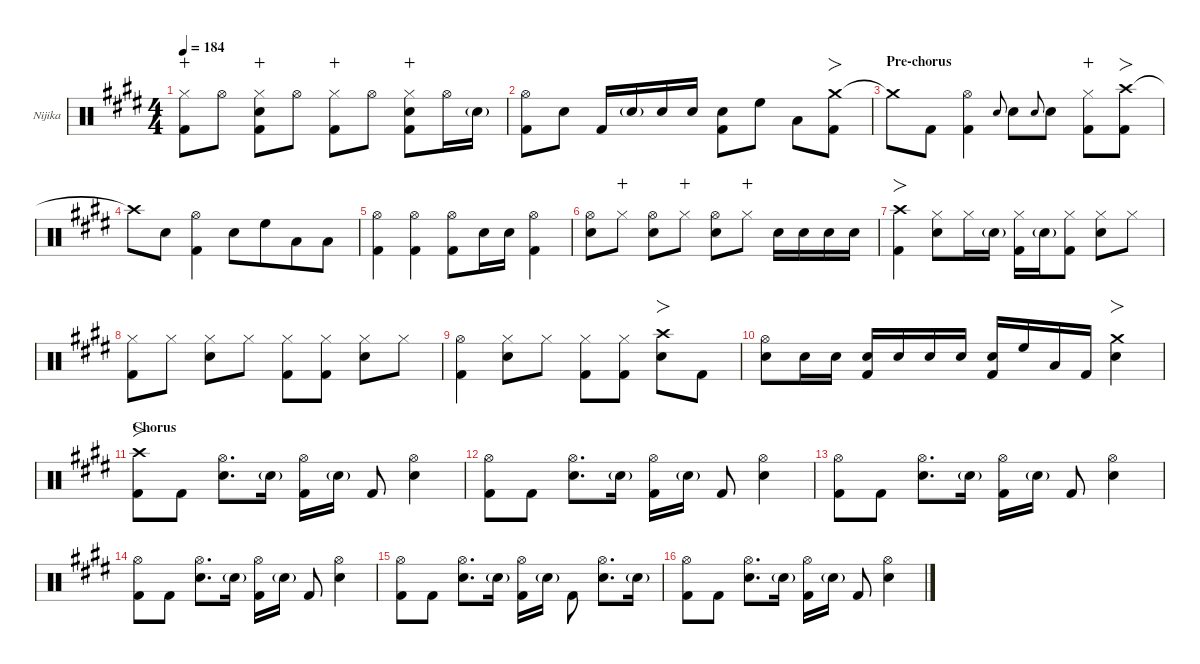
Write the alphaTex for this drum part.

\defaultSystemsLayout 4
\hideDynamics
\bracketExtendMode nobrackets
\firstSystemTrackNameOrientation horizontal
\track ("Nijika" "Nijika") {defaultSystemsLayout 4 instrument percussion}
\staff {score}
\articulation defaults
\ts (4 4)
\tempo 184
\clef neutral
\ks e
("Hi-Hat (closed)"{acc forcenatural} "Kick (hit) 2"{acc forcenatural}).8{dy mp wahc beam Down} "Hi-Hat (open)"{acc forcenatural}.8{dy f beam Down} ("Hi-Hat (closed)"{acc forcenatural} "Snare (hit) 2"{acc forcenatural} "Kick (hit) 2"{acc forcenatural}).8{wahc beam Down} "Hi-Hat (open)"{acc forcenatural}.8{beam Down} ("Hi-Hat (closed)"{acc forcenatural} "Kick (hit) 2"{acc forcenatural}).8{dy mp wahc beam Down} "Hi-Hat (open)"{acc forcenatural}.8{dy f beam Down beam split} ("Hi-Hat (closed)"{acc forcenatural} "Snare (hit) 2"{acc forcenatural} "Kick (hit) 2"{acc forcenatural}).8{wahc beam Down} "Hi-Hat (open)"{acc forcenatural}.16{beam Down} "Snare (hit) 2"{g acc forcenatural}.16{dy mf beam Down} |
("Hi-Hat (open)"{acc forcenatural} "Kick (hit) 2"{acc forcenatural}).8{dy f beam Down} "Snare (hit) 2"{acc forcenatural}.8{beam Down beam split} "Kick (hit) 2"{acc forcenatural}.16{beam Up beam merge} "Snare (hit) 2"{g acc forcenatural}.16{dy mf beam Up beam merge} "Snare (hit) 2"{acc forcenatural}.16{dy f beam Up beam merge} "Snare (hit) 2"{acc forcenatural}.16{dy mf beam Up} ("Snare (hit) 2"{acc forcenatural} "Kick (hit) 2"{acc forcenatural}).8{dy f beam Down} "High Floor Tom (hit)"{acc forcenatural}.8{beam Down} "Low Tom (hit)"{acc forcenatural}.8{beam Down} ("Crash medium (hit)"{acc forcenatural} "Kick (hit) 2"{acc forcenatural}).8{fo beam Down} |
\section ("" "Pre-chorus")
"Crash medium (hit)"{t acc forcenatural}.8{beam Down} "Kick (hit) 2"{acc forcenatural}.8{beam Down} ("Hi-Hat (open)"{acc forcenatural} "Kick (hit) 2"{acc forcenatural}).4{beam Down} "Snare (hit) 2"{acc forcenatural}.8{gr onbeat beam Up} "Snare (hit) 2"{acc forcenatural}.8{beam Down} "Snare (hit) 2"{acc forcenatural}.8{gr onbeat beam Up} "Snare (hit) 2"{acc forcenatural}.8{beam Down} ("Hi-Hat (closed)"{acc forcenatural} "Kick (hit) 2"{acc forcenatural}).8{dy mp wahc beam Down} ("Crash high (hit)"{acc forcenatural} "Kick (hit) 2"{acc forcenatural}).8{fo dy f beam Down} |
"Crash high (hit)"{t acc forcenatural}.8{beam Down} "Snare (hit) 2"{acc forcenatural}.8{beam Down} ("Hi-Hat (open)"{acc forcenatural} "Kick (hit) 2"{acc forcenatural}).4{beam Down} "Snare (hit) 2"{acc forcenatural}.8{beam Down beam merge} "High Floor Tom (hit)"{acc forcenatural}.8{beam Down beam merge} "Low Tom (hit)"{acc forcenatural}.8{beam Down beam merge} "Low Tom (hit)"{acc forcenatural}.8{beam Down} |
("Hi-Hat (open)"{acc forcenatural} "Kick (hit) 2"{acc forcenatural}).4{beam Down} ("Hi-Hat (open)"{acc forcenatural} "Kick (hit) 2"{acc forcenatural}).4{beam Down} ("Hi-Hat (open)"{acc forcenatural} "Kick (hit) 2"{acc forcenatural}).8{beam Down} "Snare (hit) 2"{acc forcenatural}.16{beam Down} "Snare (hit) 2"{acc forcenatural}.16{dy mf beam Down} ("Hi-Hat (open)"{acc forcenatural} "Kick (hit) 2"{acc forcenatural}).4{dy f beam Down} |
("Hi-Hat (open)"{acc forcenatural} "Snare (hit) 2"{acc forcenatural}).8{beam Down} "Hi-Hat (closed)"{acc forcenatural}.8{dy mp wahc beam Down} ("Hi-Hat (open)"{acc forcenatural} "Snare (hit) 2"{acc forcenatural}).8{dy f beam Down} "Hi-Hat (closed)"{acc forcenatural}.8{dy mp wahc beam Down} ("Hi-Hat (open)"{acc forcenatural} "Snare (hit) 2"{acc forcenatural}).8{dy f beam Down} "Hi-Hat (closed)"{acc forcenatural}.8{dy mp wahc beam Down beam split} "Snare (hit) 2"{acc forcenatural}.16{dy f beam Down} "Snare (hit) 2"{acc forcenatural}.16{dy mf beam Down} "Snare (hit) 2"{acc forcenatural}.16{dy f beam Down} "Snare (hit) 2"{acc forcenatural}.16{dy mf beam Down} |
("Crash high (hit)"{acc forcenatural} "Kick (hit) 2"{acc forcenatural}).4{fo dy f beam Down} ("Hi-Hat (closed)"{acc forcenatural} "Snare (hit) 2"{acc forcenatural}).8{beam Down} "Hi-Hat (closed)"{acc forcenatural}.16{dy mf beam Down} "Snare (hit) 2"{g acc forcenatural}.16{beam Down} ("Hi-Hat (closed)"{acc forcenatural} "Kick (hit) 2"{acc forcenatural}).16{dy f beam Down} "Snare (hit) 2"{g acc forcenatural}.16{dy mf beam Down} ("Hi-Hat (closed)"{acc forcenatural} "Kick (hit) 2"{acc forcenatural}).8{beam Down beam split} ("Hi-Hat (closed)"{acc forcenatural} "Snare (hit) 2"{acc forcenatural}).8{dy f beam Down} "Hi-Hat (closed)"{acc forcenatural}.8{dy mf beam Down} |
("Hi-Hat (closed)"{acc forcenatural} "Kick (hit) 2"{acc forcenatural}).8{dy f beam Down} "Hi-Hat (closed)"{acc forcenatural}.8{dy mf beam Down} ("Hi-Hat (closed)"{acc forcenatural} "Snare (hit) 2"{acc forcenatural}).8{dy f beam Down} "Hi-Hat (closed)"{acc forcenatural}.8{dy mf beam Down} ("Hi-Hat (closed)"{acc forcenatural} "Kick (hit) 2"{acc forcenatural}).8{dy f beam Down} ("Hi-Hat (closed)"{acc forcenatural} "Kick (hit) 2"{acc forcenatural}).8{dy mf beam Down} ("Hi-Hat (closed)"{acc forcenatural} "Snare (hit) 2"{acc forcenatural}).8{dy f beam Down} "Hi-Hat (closed)"{acc forcenatural}.8{dy mf beam Down} |
("Hi-Hat (open)"{acc forcenatural} "Kick (hit) 2"{acc forcenatural}).4{dy f beam Down} ("Hi-Hat (closed)"{acc forcenatural} "Snare (hit) 2"{acc forcenatural}).8{beam Down} "Hi-Hat (closed)"{acc forcenatural}.8{dy mf beam Down} ("Hi-Hat (closed)"{acc forcenatural} "Kick (hit) 2"{acc forcenatural}).8{dy f beam Down} ("Hi-Hat (closed)"{acc forcenatural} "Kick (hit) 2"{acc forcenatural}).8{dy mf beam Down beam split} ("Crash high (hit)"{acc forcenatural} "Snare (hit) 2"{acc forcenatural}).8{fo dy f beam Down} "Kick (hit) 2"{acc forcenatural}.8{beam Down} |
("Hi-Hat (open)"{acc forcenatural} "Snare (hit) 2"{acc forcenatural}).8{beam Down} "Snare (hit) 2"{acc forcenatural}.16{beam Down} "Snare (hit) 2"{acc forcenatural}.16{dy mf beam Down beam split} ("Snare (hit) 2"{acc forcenatural} "Kick (hit) 2"{acc forcenatural}).16{dy f beam Up} "Snare (hit) 2"{acc forcenatural}.16{dy mf beam Up} "Snare (hit) 2"{acc forcenatural}.16{dy f beam Up} "Snare (hit) 2"{acc forcenatural}.16{dy mf beam Up} ("Snare (hit) 2"{acc forcenatural} "Kick (hit) 2"{acc forcenatural}).16{dy f beam Up beam merge} "High Floor Tom (hit)"{acc forcenatural}.16{beam Up beam merge} "Low Tom (hit)"{acc forcenatural}.16{beam Up beam merge} "Kick (hit) 2"{acc forcenatural}.16{beam Up} ("Snare (hit) 2"{acc forcenatural} "Crash medium (hit)"{acc forcenatural}).4{fo beam Down} |
\section ("" "Chorus")
("Crash high (hit)"{acc forcenatural} "Kick (hit) 2"{acc forcenatural}).8{fo beam Down} "Kick (hit) 2"{acc forcenatural}.8{beam Down} ("Hi-Hat (open)"{acc forcenatural} "Snare (hit) 2"{acc forcenatural}).8{d beam Down} "Snare (hit) 2"{g acc forcenatural}.16{dy mf beam Down} ("Hi-Hat (open)"{acc forcenatural} "Kick (hit) 2"{acc forcenatural}).16{dy f beam Down} "Snare (hit) 2"{g acc forcenatural}.16{dy mf beam Down beam split} "Kick (hit) 2"{acc forcenatural}.8{dy f beam Up} ("Hi-Hat (open)"{acc forcenatural} "Snare (hit) 2"{acc forcenatural}).4{beam Down} |
("Hi-Hat (open)"{acc forcenatural} "Kick (hit) 2"{acc forcenatural}).8{beam Down} "Kick (hit) 2"{acc forcenatural}.8{beam Down} ("Hi-Hat (open)"{acc forcenatural} "Snare (hit) 2"{acc forcenatural}).8{d beam Down} "Snare (hit) 2"{g acc forcenatural}.16{dy mf beam Down} ("Hi-Hat (open)"{acc forcenatural} "Kick (hit) 2"{acc forcenatural}).16{dy f beam Down} "Snare (hit) 2"{g acc forcenatural}.16{dy mf beam Down beam split} "Kick (hit) 2"{acc forcenatural}.8{dy f beam Up} ("Hi-Hat (open)"{acc forcenatural} "Snare (hit) 2"{acc forcenatural}).4{beam Down} |
("Hi-Hat (open)"{acc forcenatural} "Kick (hit) 2"{acc forcenatural}).8{beam Down} "Kick (hit) 2"{acc forcenatural}.8{beam Down} ("Hi-Hat (open)"{acc forcenatural} "Snare (hit) 2"{acc forcenatural}).8{d beam Down} "Snare (hit) 2"{g acc forcenatural}.16{dy mf beam Down} ("Hi-Hat (open)"{acc forcenatural} "Kick (hit) 2"{acc forcenatural}).16{dy f beam Down} "Snare (hit) 2"{g acc forcenatural}.16{dy mf beam Down beam split} "Kick (hit) 2"{acc forcenatural}.8{dy f beam Up} ("Hi-Hat (open)"{acc forcenatural} "Snare (hit) 2"{acc forcenatural}).4{beam Down} |
("Hi-Hat (open)"{acc forcenatural} "Kick (hit) 2"{acc forcenatural}).8{beam Down} "Kick (hit) 2"{acc forcenatural}.8{beam Down} ("Hi-Hat (open)"{acc forcenatural} "Snare (hit) 2"{acc forcenatural}).8{d beam Down} "Snare (hit) 2"{g acc forcenatural}.16{dy mf beam Down} ("Hi-Hat (open)"{acc forcenatural} "Kick (hit) 2"{acc forcenatural}).16{dy f beam Down} "Snare (hit) 2"{g acc forcenatural}.16{dy mf beam Down beam split} "Kick (hit) 2"{acc forcenatural}.8{dy f beam Up} ("Hi-Hat (open)"{acc forcenatural} "Snare (hit) 2"{acc forcenatural}).4{beam Down} |
("Hi-Hat (open)"{acc forcenatural} "Kick (hit) 2"{acc forcenatural}).8{beam Down} "Kick (hit) 2"{acc forcenatural}.8{beam Down} ("Hi-Hat (open)"{acc forcenatural} "Snare (hit) 2"{acc forcenatural}).8{d beam Down} "Snare (hit) 2"{g acc forcenatural}.16{dy mf beam Down} ("Hi-Hat (open)"{acc forcenatural} "Kick (hit) 2"{acc forcenatural}).16{dy f beam Down} "Snare (hit) 2"{g acc forcenatural}.16{dy mf beam Down beam split} "Kick (hit) 2"{acc forcenatural}.8{dy f beam Down} ("Hi-Hat (open)"{acc forcenatural} "Snare (hit) 2"{acc forcenatural}).8{d beam Down} "Snare (hit) 2"{g acc forcenatural}.16{dy mf beam Down} |
("Hi-Hat (open)"{acc forcenatural} "Kick (hit) 2"{acc forcenatural}).8{dy f beam Down} "Kick (hit) 2"{acc forcenatural}.8{beam Down} ("Hi-Hat (open)"{acc forcenatural} "Snare (hit) 2"{acc forcenatural}).8{d beam Down} "Snare (hit) 2"{g acc forcenatural}.16{dy mf beam Down} ("Hi-Hat (open)"{acc forcenatural} "Kick (hit) 2"{acc forcenatural}).16{dy f beam Down} "Snare (hit) 2"{g acc forcenatural}.16{dy mf beam Down beam split} "Kick (hit) 2"{acc forcenatural}.8{dy f beam Up} ("Hi-Hat (open)"{acc forcenatural} "Snare (hit) 2"{acc forcenatural}).4{beam Down}
